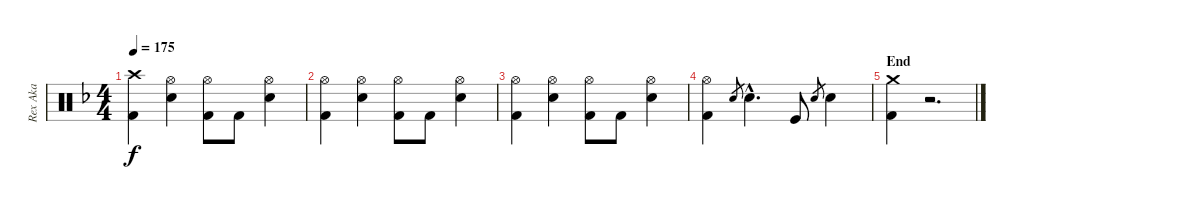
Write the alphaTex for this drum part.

\track ("Rex Aka" "Rex Aka") {instrument percussion}
\staff {score}
\articulation defaults
\ts (4 4)
\tempo 175
\clef neutral
\ks f
("Crash high (hit)" "Kick (hit) 2").4{dy f} ("Hi-Hat (open)" "Electric Snare (hit)").4 ("Hi-Hat (open)" "Kick (hit) 2").8 "Kick (hit) 2".8 ("Hi-Hat (open)" "Electric Snare (hit)").4 |
("Hi-Hat (open)" "Kick (hit) 2").4 ("Hi-Hat (open)" "Electric Snare (hit)").4 ("Hi-Hat (open)" "Kick (hit) 2").8 "Kick (hit) 2".8 ("Hi-Hat (open)" "Electric Snare (hit)").4 |
("Hi-Hat (open)" "Kick (hit) 2").4 ("Hi-Hat (open)" "Electric Snare (hit)").4 ("Hi-Hat (open)" "Kick (hit) 2").8 "Kick (hit) 2".8 ("Hi-Hat (open)" "Electric Snare (hit)").4 |
("Hi-Hat (open)" "Kick (hit) 2").4 "Electric Snare (hit)".8{gr} "Electric Snare (hit)"{hac}.4{d} "Kick (hit)".8 "Electric Snare (hit)".8{gr} "Electric Snare (hit)".4 |
\section ("" "End")
("Crash medium (hit)" "Kick (hit) 2").4 r.2{d}
